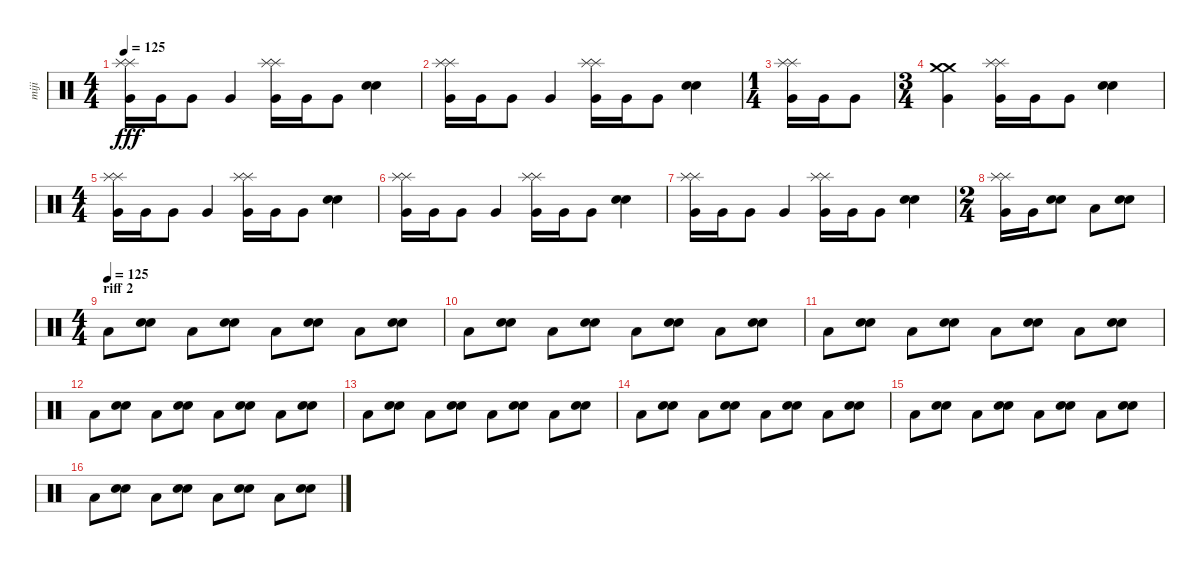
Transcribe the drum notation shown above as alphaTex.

\track ("miji" "miji") {instrument percussion}
\staff {score}
\articulation defaults
\ts (4 4)
\tempo 125
\clef neutral
\ks c
("Very Low Tom (hit)" "Splash (hit)" "Splash (hit)").16{dy fff} "Very Low Tom (hit)".16 "Very Low Tom (hit)".8 "Very Low Tom (hit)".4 ("Very Low Tom (hit)" "Splash (hit)" "Splash (hit)").16 "Very Low Tom (hit)".16 "Very Low Tom (hit)".8 ("Electric Snare (hit)" "Electric Snare (hit)").4 |
("Very Low Tom (hit)" "Splash (hit)" "Splash (hit)").16 "Very Low Tom (hit)".16 "Very Low Tom (hit)".8 "Very Low Tom (hit)".4 ("Very Low Tom (hit)" "Splash (hit)" "Splash (hit)").16 "Very Low Tom (hit)".16 "Very Low Tom (hit)".8 ("Electric Snare (hit)" "Electric Snare (hit)").4 |
\ts (1 4)
("Very Low Tom (hit)" "Splash (hit)" "Splash (hit)").16 "Very Low Tom (hit)".16 "Very Low Tom (hit)".8 |
\ts (3 4)
("Very Low Tom (hit)" "Crash medium (hit)" "Crash medium (hit)").4 ("Very Low Tom (hit)" "Splash (hit)" "Splash (hit)").16 "Very Low Tom (hit)".16 "Very Low Tom (hit)".8 ("Electric Snare (hit)" "Electric Snare (hit)").4 |
\ts (4 4)
("Very Low Tom (hit)" "Splash (hit)" "Splash (hit)").16 "Very Low Tom (hit)".16 "Very Low Tom (hit)".8 "Very Low Tom (hit)".4 ("Very Low Tom (hit)" "Splash (hit)" "Splash (hit)").16 "Very Low Tom (hit)".16 "Very Low Tom (hit)".8 ("Electric Snare (hit)" "Electric Snare (hit)").4 |
("Very Low Tom (hit)" "Splash (hit)" "Splash (hit)").16 "Very Low Tom (hit)".16 "Very Low Tom (hit)".8 "Very Low Tom (hit)".4 ("Very Low Tom (hit)" "Splash (hit)" "Splash (hit)").16 "Very Low Tom (hit)".16 "Very Low Tom (hit)".8 ("Electric Snare (hit)" "Electric Snare (hit)").4 |
("Very Low Tom (hit)" "Splash (hit)" "Splash (hit)").16 "Very Low Tom (hit)".16 "Very Low Tom (hit)".8 "Very Low Tom (hit)".4 ("Very Low Tom (hit)" "Splash (hit)" "Splash (hit)").16 "Very Low Tom (hit)".16 "Very Low Tom (hit)".8 ("Electric Snare (hit)" "Electric Snare (hit)").4 |
\ts (2 4)
("Very Low Tom (hit)" "Splash (hit)" "Splash (hit)").16 "Very Low Tom (hit)".16 ("Electric Snare (hit)" "Electric Snare (hit)").8 "Low Floor Tom (hit)".8 ("Electric Snare (hit)" "Electric Snare (hit)").8 |
\ts (4 4)
\section ("" "riff 2")
\tempo (125)
"Low Floor Tom (hit)".8 ("Electric Snare (hit)" "Electric Snare (hit)").8 "Low Floor Tom (hit)".8 ("Electric Snare (hit)" "Electric Snare (hit)").8 "Low Floor Tom (hit)".8 ("Electric Snare (hit)" "Electric Snare (hit)").8 "Low Floor Tom (hit)".8 ("Electric Snare (hit)" "Electric Snare (hit)").8 |
"Low Floor Tom (hit)".8 ("Electric Snare (hit)" "Electric Snare (hit)").8 "Low Floor Tom (hit)".8 ("Electric Snare (hit)" "Electric Snare (hit)").8 "Low Floor Tom (hit)".8 ("Electric Snare (hit)" "Electric Snare (hit)").8 "Low Floor Tom (hit)".8 ("Electric Snare (hit)" "Electric Snare (hit)").8 |
"Low Floor Tom (hit)".8 ("Electric Snare (hit)" "Electric Snare (hit)").8 "Low Floor Tom (hit)".8 ("Electric Snare (hit)" "Electric Snare (hit)").8 "Low Floor Tom (hit)".8 ("Electric Snare (hit)" "Electric Snare (hit)").8 "Low Floor Tom (hit)".8 ("Electric Snare (hit)" "Electric Snare (hit)").8 |
"Low Floor Tom (hit)".8 ("Electric Snare (hit)" "Electric Snare (hit)").8 "Low Floor Tom (hit)".8 ("Electric Snare (hit)" "Electric Snare (hit)").8 "Low Floor Tom (hit)".8 ("Electric Snare (hit)" "Electric Snare (hit)").8 "Low Floor Tom (hit)".8 ("Electric Snare (hit)" "Electric Snare (hit)").8 |
"Low Floor Tom (hit)".8 ("Electric Snare (hit)" "Electric Snare (hit)").8 "Low Floor Tom (hit)".8 ("Electric Snare (hit)" "Electric Snare (hit)").8 "Low Floor Tom (hit)".8 ("Electric Snare (hit)" "Electric Snare (hit)").8 "Low Floor Tom (hit)".8 ("Electric Snare (hit)" "Electric Snare (hit)").8 |
"Low Floor Tom (hit)".8 ("Electric Snare (hit)" "Electric Snare (hit)").8 "Low Floor Tom (hit)".8 ("Electric Snare (hit)" "Electric Snare (hit)").8 "Low Floor Tom (hit)".8 ("Electric Snare (hit)" "Electric Snare (hit)").8 "Low Floor Tom (hit)".8 ("Electric Snare (hit)" "Electric Snare (hit)").8 |
"Low Floor Tom (hit)".8 ("Electric Snare (hit)" "Electric Snare (hit)").8 "Low Floor Tom (hit)".8 ("Electric Snare (hit)" "Electric Snare (hit)").8 "Low Floor Tom (hit)".8 ("Electric Snare (hit)" "Electric Snare (hit)").8 "Low Floor Tom (hit)".8 ("Electric Snare (hit)" "Electric Snare (hit)").8 |
"Low Floor Tom (hit)".8 ("Electric Snare (hit)" "Electric Snare (hit)").8 "Low Floor Tom (hit)".8 ("Electric Snare (hit)" "Electric Snare (hit)").8 "Low Floor Tom (hit)".8 ("Electric Snare (hit)" "Electric Snare (hit)").8 "Low Floor Tom (hit)".8 ("Electric Snare (hit)" "Electric Snare (hit)").8
